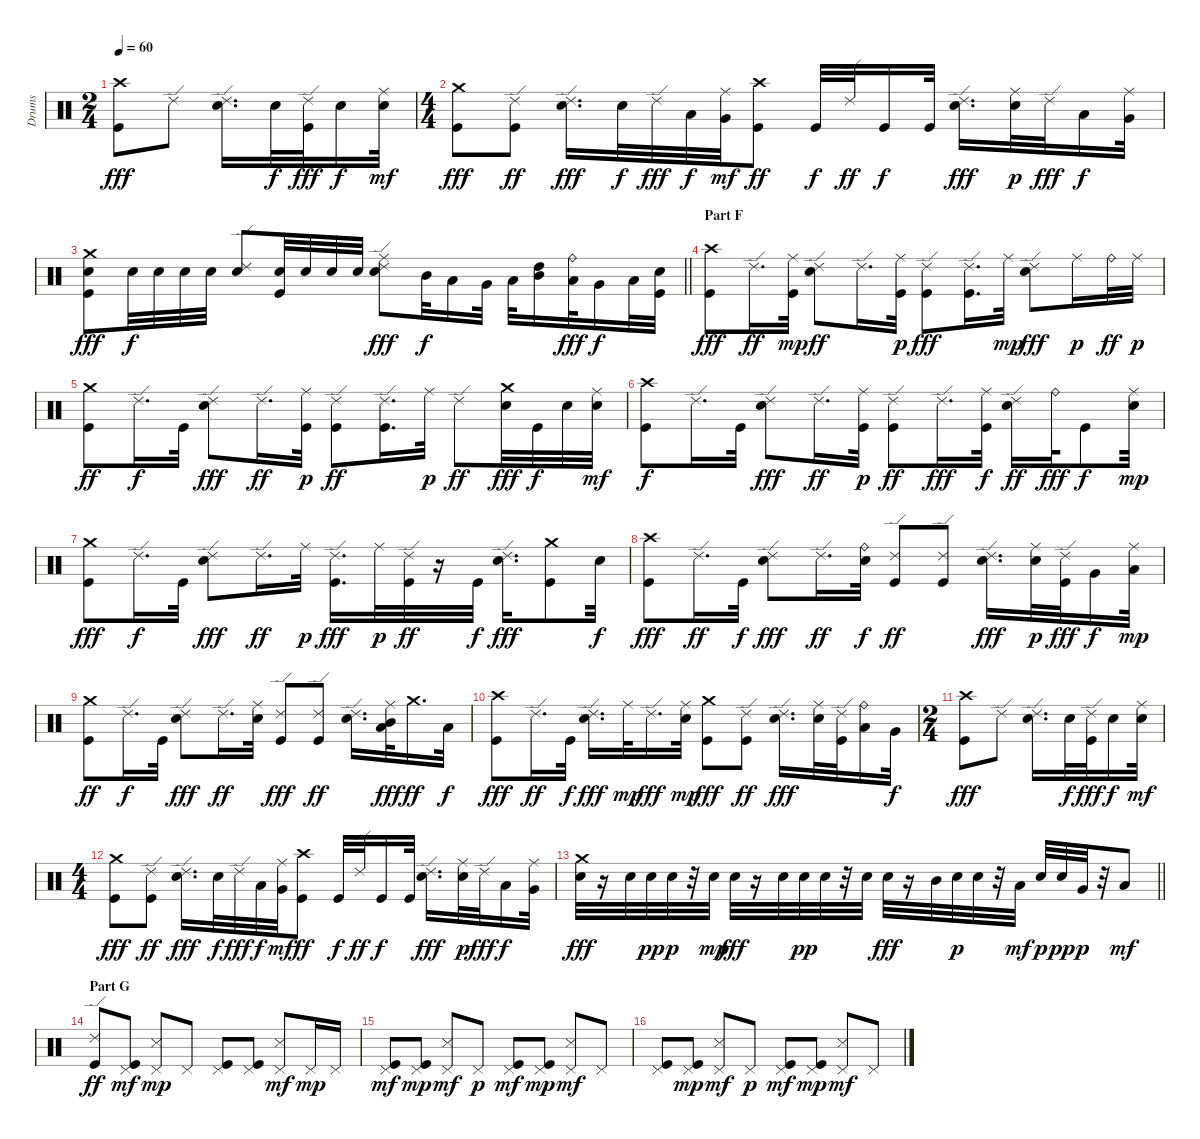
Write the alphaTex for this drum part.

\track ("Drums" "Drums") {instrument percussion}
\staff {score}
\articulation defaults
\ts (2 4)
\tempo 60
\clef neutral
\ks c
("Crash high (hit)" "Kick (hit)").8{dy fff} "Ride (edge) 2".8 ("Ride (edge) 2" "Electric Snare (hit)").16{d} "Electric Snare (hit)".32{dy f} ("Ride (edge) 2" "Kick (hit)").32{dy fff} "Electric Snare (hit)".16{dy f} ("Ride (middle)" "Electric Snare (hit)").32{dy mf} |
\ts (4 4)
("Crash medium (hit)" "Kick (hit)").8{dy fff} ("Ride (edge) 2" "Kick (hit)").8{dy ff} ("Ride (edge) 2" "Electric Snare (hit)").16{d dy fff} "Electric Snare (hit)".32{dy f} "Ride (edge) 2".32{dy fff} "Low Tom (hit)".32{dy f} ("Ride (middle)" "Very Low Tom (hit)").32{dy mf} ("Crash high (hit)" "Kick (hit)").8{dy ff} "Kick (hit)".32{dy f} "Ride (edge) 2".32{dy ff} "Kick (hit)".16{dy f} "Kick (hit)".32 ("Ride (edge) 2" "Electric Snare (hit)").16{d dy fff} ("Ride (middle)" "Electric Snare (hit)").32{dy p} "Ride (edge) 2".32{dy fff} "Low Tom (hit)".16{dy f} ("Ride (middle)" "Very Low Tom (hit)").32 |
\barLineRight lightlight
("Crash medium (hit)" "Electric Snare (hit)" "Kick (hit)").8{dy fff} "Electric Snare (hit)".32{dy f} "Electric Snare (hit)".32 "Electric Snare (hit)".32 "Electric Snare (hit)".32 ("Ride (edge) 2" "Electric Snare (hit)").8 ("Electric Snare (hit)" "Kick (hit)").32 "Electric Snare (hit)".32 "Electric Snare (hit)".32 "Electric Snare (hit)".32 ("Ride (edge) 2" "Ride (middle)" "Electric Snare (hit)").8{dy fff} "Mid Tom (hit)".32{dy f} "Low Tom (hit)".16 "Very Low Tom (hit)".32 "Low Floor Tom (hit)".32 ("High Tom (hit)" "Mid Tom (hit)").16 ("Ride (bell)" "Low Tom (hit)").32{dy fff} "Very Low Tom (hit)".16{dy f} "Low Floor Tom (hit)".32 ("Electric Snare (hit)" "Kick (hit)").32 |
\section ("" "Part F")
("Crash high (hit)" "Kick (hit)").8{dy fff volume 13} "Ride (edge) 2".16{d dy ff} ("Ride (middle)" "Kick (hit)").32{dy mp} ("Ride (edge) 2" "Electric Snare (hit)").8{dy ff} "Ride (edge) 2".16{d} ("Ride (middle)" "Kick (hit)").32{dy p} ("Ride (edge) 2" "Kick (hit)").8{dy fff} ("Ride (edge) 2" "Kick (hit)").16{d} "Ride (middle)".32{dy mp} ("Ride (edge) 2" "Electric Snare (hit)").8{dy fff} "Ride (middle)".16{dy p} "Ride (bell)".32{dy ff} "Ride (middle)".32{dy p} |
("Crash medium (hit)" "Kick (hit)").8{dy ff} "Ride (edge) 2".16{d dy f} "Kick (hit)".32 ("Ride (edge) 2" "Electric Snare (hit)").8{dy fff} "Ride (edge) 2".16{d dy ff} ("Ride (middle)" "Kick (hit)").32{dy p} ("Ride (edge) 2" "Kick (hit)").8{dy ff} ("Ride (edge) 2" "Kick (hit)").16{d} "Ride (middle)".32{dy p} "Ride (edge) 2".8{dy ff} ("Crash medium (hit)" "Electric Snare (hit)").32{dy fff} "Kick (hit)".32{dy f} "Electric Snare (hit)".32 ("Ride (middle)" "Electric Snare (hit)").32{dy mf} |
("Crash high (hit)" "Kick (hit)").8{dy f} "Ride (edge) 2".16{d} "Kick (hit)".32 ("Ride (edge) 2" "Electric Snare (hit)").8{dy fff} "Ride (edge) 2".16{d dy ff} ("Ride (middle)" "Kick (hit)").32{dy p} ("Ride (edge) 2" "Kick (hit)").8{dy ff} "Ride (edge) 2".16{d dy fff} ("Ride (middle)" "Kick (hit)").32{dy f} ("Ride (edge) 2" "Electric Snare (hit)").16{dy ff} "Ride (bell)".32{dy fff} "Kick (hit)".8{dy f} ("Ride (middle)" "Electric Snare (hit)").32{dy mp} |
("Crash medium (hit)" "Kick (hit)").8{dy fff} "Ride (edge) 2".16{d dy f} "Kick (hit)".32 ("Ride (edge) 2" "Electric Snare (hit)").8{dy fff} "Ride (edge) 2".16{d dy ff} "Ride (middle)".32{dy p} ("Ride (edge) 2" "Kick (hit)").16{d dy fff} "Ride (middle)".32{dy p} ("Ride (edge) 2" "Kick (hit)").32{dy ff} r.16 "Kick (hit)".32{dy f} ("Ride (edge) 2" "Electric Snare (hit)").16{d dy fff} ("Crash medium (hit)" "Kick (hit)").8 "Electric Snare (hit)".32{dy f} |
("Crash high (hit)" "Kick (hit)").8{dy fff} "Ride (edge) 2".16{d dy ff} "Kick (hit)".32{dy f} ("Ride (edge) 2" "Electric Snare (hit)").8{dy fff} "Ride (edge) 2".16{d dy ff} ("Ride (bell)" "Electric Snare (hit)").32{dy f} ("Ride (edge) 2" "Kick (hit)").8{dy ff} ("Ride (edge) 2" "Kick (hit)").8 ("Ride (edge) 2" "Electric Snare (hit)").16{d dy fff} ("Ride (middle)" "Electric Snare (hit)").32{dy p} ("Ride (edge) 2" "Kick (hit)").32{dy fff} "Very Low Tom (hit)".16{dy f} ("Ride (middle)" "Low Floor Tom (hit)").32{dy mp} |
("Crash medium (hit)" "Kick (hit)").8{dy ff} "Ride (edge) 2".16{d dy f} "Kick (hit)".32 ("Ride (edge) 2" "Electric Snare (hit)").8{dy fff} "Ride (edge) 2".16{d dy ff} ("Ride (middle)" "Electric Snare (hit)").32 ("Ride (edge) 2" "Kick (hit)").8{dy fff} ("Ride (edge) 2" "Kick (hit)").8{dy ff} ("Ride (edge) 2" "Electric Snare (hit)").16{d} ("Ride (middle)" "Mid Tom (hit)" "Low Tom (hit)").32{dy fff} "Crash medium (hit)".16{d dy ff} "Low Floor Tom (hit)".32{dy f} |
("Crash high (hit)" "Kick (hit)").8{dy fff} "Ride (edge) 2".16{d dy ff} "Kick (hit)".32{dy f} ("Ride (edge) 2" "Electric Snare (hit)").16{d dy fff} "Ride (middle)".32{dy mp} "Ride (edge) 2".16{d dy fff} ("Ride (middle)" "Electric Snare (hit)").32{dy mp} ("Crash medium (hit)" "Kick (hit)").8{dy fff} ("Ride (edge) 2" "Kick (hit)").8{dy ff} ("Ride (edge) 2" "Electric Snare (hit)").16{d dy fff} ("Ride (middle)" "Electric Snare (hit)").32 ("Ride (edge) 2" "Kick (hit)").32 ("Ride (bell)" "Low Tom (hit)").16 "Very Low Tom (hit)".32{dy f} |
\ts (2 4)
("Crash high (hit)" "Kick (hit)").8{dy fff} "Ride (edge) 2".8 ("Ride (edge) 2" "Electric Snare (hit)").16{d} "Electric Snare (hit)".32{dy f} ("Ride (edge) 2" "Kick (hit)").32{dy fff} "Electric Snare (hit)".16{dy f} ("Ride (middle)" "Electric Snare (hit)").32{dy mf} |
\ts (4 4)
("Crash medium (hit)" "Kick (hit)").8{dy fff} ("Ride (edge) 2" "Kick (hit)").8{dy ff} ("Ride (edge) 2" "Electric Snare (hit)").16{d dy fff} "Electric Snare (hit)".32{dy f} "Ride (edge) 2".32{dy fff} "Low Tom (hit)".32{dy f} ("Ride (middle)" "Very Low Tom (hit)").32{dy mf} ("Crash high (hit)" "Kick (hit)").8{dy ff} "Kick (hit)".32{dy f} "Ride (edge) 2".32{dy ff} "Kick (hit)".16{dy f} "Kick (hit)".32 ("Ride (edge) 2" "Electric Snare (hit)").16{d dy fff} ("Ride (middle)" "Electric Snare (hit)").32{dy p} "Ride (edge) 2".32{dy fff} "Low Tom (hit)".16{dy f} ("Ride (middle)" "Very Low Tom (hit)").32 |
\barLineRight lightlight
("Crash medium (hit)" "Electric Snare (hit)").32{dy fff} r.16 "Electric Snare (hit)".32 "Electric Snare (hit)".32{dy pp} "Electric Snare (hit)".32{dy p} r.32 "Electric Snare (hit)".32{dy mp} "Electric Snare (hit)".32{dy fff} r.16 "Electric Snare (hit)".32 "Electric Snare (hit)".32{dy pp} "Electric Snare (hit)".32 r.32 "Electric Snare (hit)".32 "Electric Snare (hit)".32{dy fff} r.16 "Mid Tom (hit)".32 "Electric Snare (hit)".32{dy p} "Electric Snare (hit)".32 r.32 "Low Tom (hit)".32{dy mf} "Electric Snare (hit)".32{dy p} "Electric Snare (hit)".32{dy pp} "Very Low Tom (hit)".32{dy p} r.32 "Low Floor Tom (hit)".8{dy mf} |
\section ("" "Part G")
("Ride (edge) 2" "Kick (hit)").8{dy ff volume 10} ("Pedal Hi-Hat (hit)" "Kick (hit)").8{dy mf} ("Pedal Hi-Hat (hit)" "Snare (side stick) 3").8{dy mp} "Pedal Hi-Hat (hit)".8 ("Pedal Hi-Hat (hit)" "Kick (hit)").8 ("Pedal Hi-Hat (hit)" "Kick (hit)").8 ("Pedal Hi-Hat (hit)" "Snare (side stick) 3").8{dy mf} "Pedal Hi-Hat (hit)".16{dy mp} "Pedal Hi-Hat (hit)".16 |
("Pedal Hi-Hat (hit)" "Kick (hit)").8{dy mf} ("Pedal Hi-Hat (hit)" "Kick (hit)").8{dy mp} ("Pedal Hi-Hat (hit)" "Snare (side stick) 3").8{dy mf} "Pedal Hi-Hat (hit)".8{dy p} ("Pedal Hi-Hat (hit)" "Kick (hit)").8{dy mf} ("Pedal Hi-Hat (hit)" "Kick (hit)").8{dy mp} ("Pedal Hi-Hat (hit)" "Snare (side stick) 3").8{dy mf} "Pedal Hi-Hat (hit)".8 |
("Pedal Hi-Hat (hit)" "Kick (hit)").8 ("Pedal Hi-Hat (hit)" "Kick (hit)").8{dy mp} ("Pedal Hi-Hat (hit)" "Snare (side stick) 3").8{dy mf} "Pedal Hi-Hat (hit)".8{dy p} ("Pedal Hi-Hat (hit)" "Kick (hit)").8{dy mf} ("Pedal Hi-Hat (hit)" "Kick (hit)").8{dy mp} ("Pedal Hi-Hat (hit)" "Snare (side stick) 3").8{dy mf} "Pedal Hi-Hat (hit)".8
